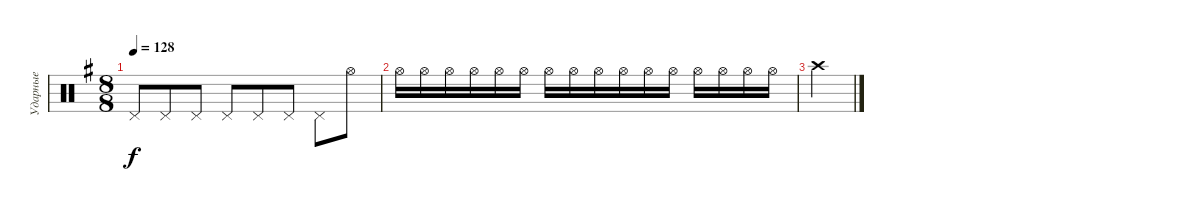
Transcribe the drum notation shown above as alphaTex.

\track ("Ударные" "Ударные") {instrument percussion}
\staff {score}
\articulation defaults
\ts (8 8)
\tempo 128
\clef neutral
\ks g "Pedal Hi-Hat (hit)".8{dy f} "Pedal Hi-Hat (hit)".8 "Pedal Hi-Hat (hit)".8 "Pedal Hi-Hat (hit)".8 "Pedal Hi-Hat (hit)".8 "Pedal Hi-Hat (hit)".8 "Pedal Hi-Hat (hit)".8 "Hi-Hat (open)".8
|
"Hi-Hat (open)".16 "Hi-Hat (open)".16 "Hi-Hat (open)".16 "Hi-Hat (open)".16 "Hi-Hat (open)".16 "Hi-Hat (open)".16 "Hi-Hat (open)".16 "Hi-Hat (open)".16 "Hi-Hat (open)".16 "Hi-Hat (open)".16 "Hi-Hat (open)".16 "Hi-Hat (open)".16 "Hi-Hat (open)".16 "Hi-Hat (open)".16 "Hi-Hat (open)".16 "Hi-Hat (open)".16 |
"Crash high (hit)".4
